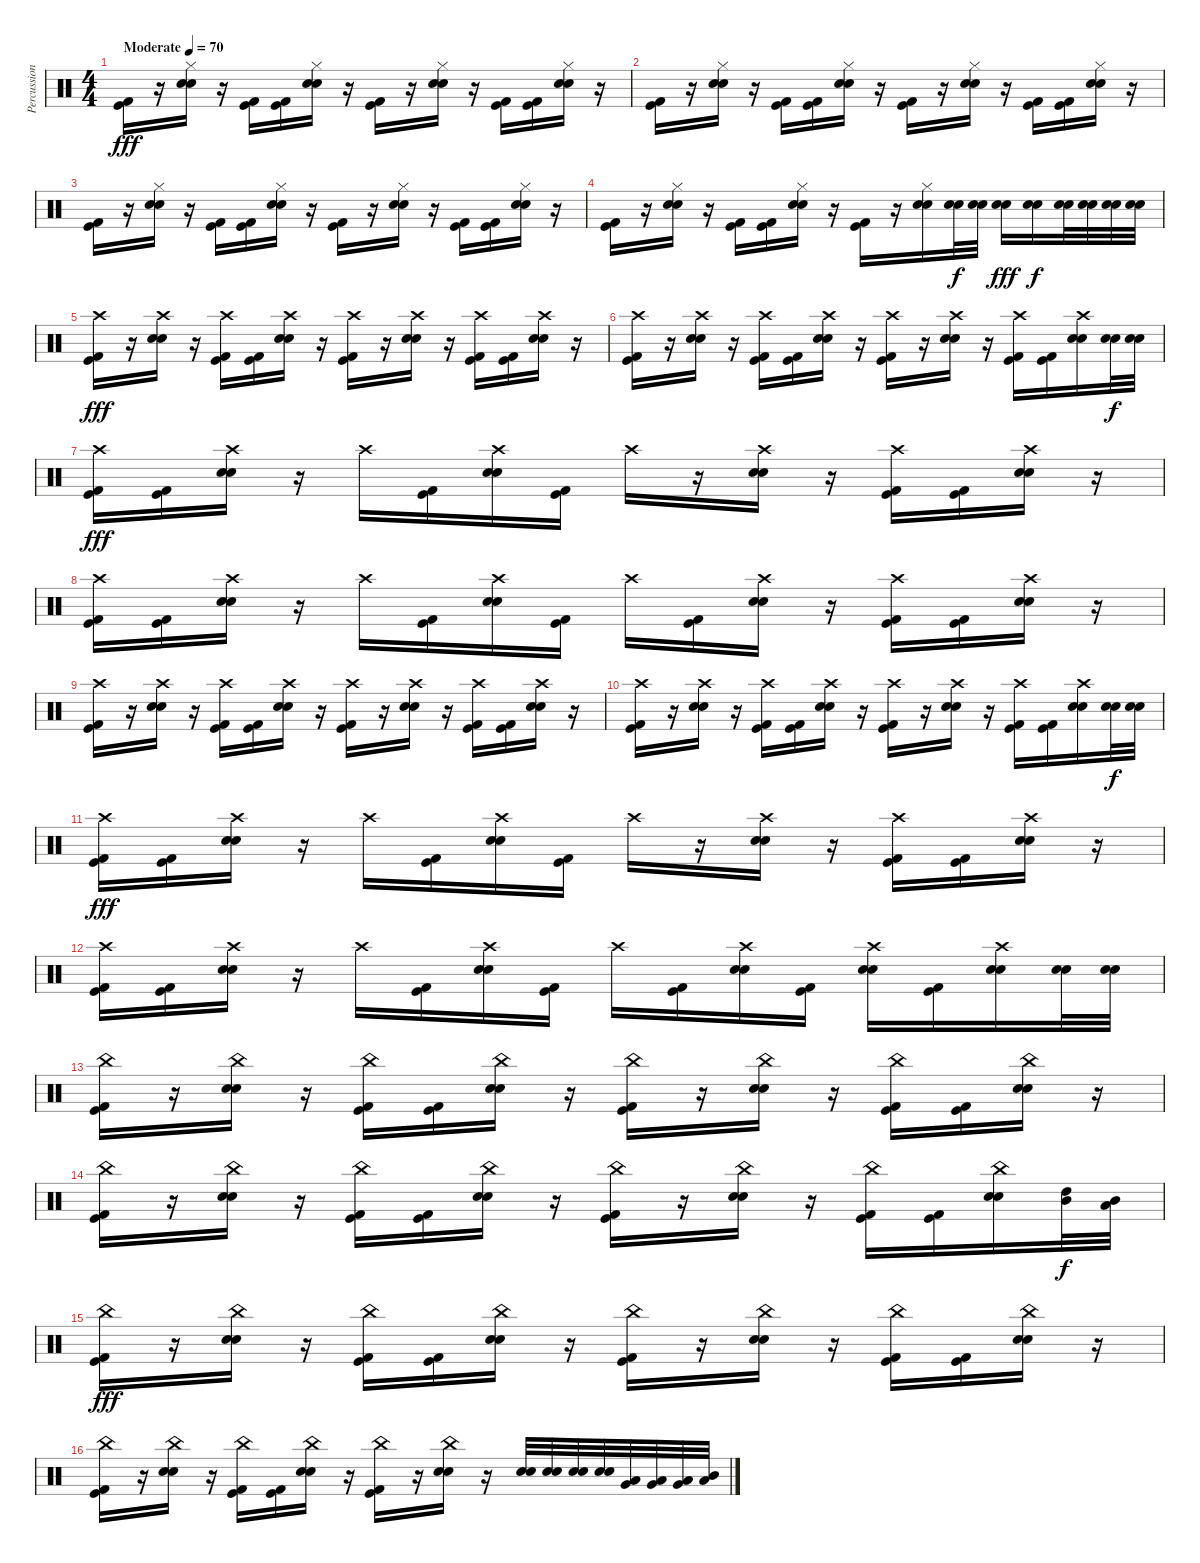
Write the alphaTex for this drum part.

\track ("Percussion" "Percussion") {instrument percussion}
\staff {score}
\articulation defaults
\ts (4 4)
\tempo (70 "Moderate")
\clef neutral
\ks c
("Kick (hit)" "Kick (hit) 2").16{dy fff} r.16 ("Hi-Hat (closed)" "Snare (hit) 2" "Electric Snare (hit)").16 r.16 ("Kick (hit)" "Kick (hit) 2").16 ("Kick (hit)" "Kick (hit) 2").16 ("Hi-Hat (closed)" "Snare (hit) 2" "Electric Snare (hit)").16 r.16 ("Kick (hit)" "Kick (hit) 2").16 r.16 ("Hi-Hat (closed)" "Snare (hit) 2" "Electric Snare (hit)").16 r.16 ("Kick (hit)" "Kick (hit) 2").16 ("Kick (hit)" "Kick (hit) 2").16 ("Hi-Hat (closed)" "Snare (hit) 2" "Electric Snare (hit)").16 r.16 |
("Kick (hit)" "Kick (hit) 2").16 r.16 ("Hi-Hat (closed)" "Snare (hit) 2" "Electric Snare (hit)").16 r.16 ("Kick (hit)" "Kick (hit) 2").16 ("Kick (hit)" "Kick (hit) 2").16 ("Hi-Hat (closed)" "Snare (hit) 2" "Electric Snare (hit)").16 r.16 ("Kick (hit)" "Kick (hit) 2").16 r.16 ("Hi-Hat (closed)" "Snare (hit) 2" "Electric Snare (hit)").16 r.16 ("Kick (hit)" "Kick (hit) 2").16 ("Kick (hit)" "Kick (hit) 2").16 ("Hi-Hat (closed)" "Snare (hit) 2" "Electric Snare (hit)").16 r.16 |
("Kick (hit)" "Kick (hit) 2").16 r.16 ("Hi-Hat (closed)" "Snare (hit) 2" "Electric Snare (hit)").16 r.16 ("Kick (hit)" "Kick (hit) 2").16 ("Kick (hit)" "Kick (hit) 2").16 ("Hi-Hat (closed)" "Snare (hit) 2" "Electric Snare (hit)").16 r.16 ("Kick (hit)" "Kick (hit) 2").16 r.16 ("Hi-Hat (closed)" "Snare (hit) 2" "Electric Snare (hit)").16 r.16 ("Kick (hit)" "Kick (hit) 2").16 ("Kick (hit)" "Kick (hit) 2").16 ("Hi-Hat (closed)" "Snare (hit) 2" "Electric Snare (hit)").16 r.16 |
("Kick (hit)" "Kick (hit) 2").16 r.16 ("Hi-Hat (closed)" "Snare (hit) 2" "Electric Snare (hit)").16 r.16 ("Kick (hit)" "Kick (hit) 2").16 ("Kick (hit)" "Kick (hit) 2").16 ("Hi-Hat (closed)" "Snare (hit) 2" "Electric Snare (hit)").16 r.16 ("Kick (hit)" "Kick (hit) 2").16 r.16 ("Hi-Hat (closed)" "Snare (hit) 2" "Electric Snare (hit)").16 ("Snare (hit) 2" "Electric Snare (hit)").32{dy f} ("Snare (hit) 2" "Electric Snare (hit)").32 ("Snare (hit) 2" "Electric Snare (hit)").16{dy fff} ("Snare (hit) 2" "Electric Snare (hit)").16{dy f} ("Snare (hit) 2" "Electric Snare (hit)").32 ("Snare (hit) 2" "Electric Snare (hit)").32 ("Snare (hit) 2" "Electric Snare (hit)").32 ("Snare (hit) 2" "Electric Snare (hit)").32 |
("Kick (hit)" "Crash high (hit)" "Kick (hit) 2").16{dy fff} r.16 ("Crash high (hit)" "Snare (hit) 2" "Electric Snare (hit)").16 r.16 ("Kick (hit)" "Crash high (hit)" "Kick (hit) 2").16 ("Kick (hit)" "Kick (hit) 2").16 ("Crash high (hit)" "Snare (hit) 2" "Electric Snare (hit)").16 r.16 ("Kick (hit)" "Crash high (hit)" "Kick (hit) 2").16 r.16 ("Crash high (hit)" "Snare (hit) 2" "Electric Snare (hit)").16 r.16 ("Kick (hit)" "Crash high (hit)" "Kick (hit) 2").16 ("Kick (hit)" "Kick (hit) 2").16 ("Crash high (hit)" "Snare (hit) 2" "Electric Snare (hit)").16 r.16 |
("Kick (hit)" "Crash high (hit)" "Kick (hit) 2").16 r.16 ("Crash high (hit)" "Snare (hit) 2" "Electric Snare (hit)").16 r.16 ("Kick (hit)" "Crash high (hit)" "Kick (hit) 2").16 ("Kick (hit)" "Kick (hit) 2").16 ("Crash high (hit)" "Snare (hit) 2" "Electric Snare (hit)").16 r.16 ("Kick (hit)" "Crash high (hit)" "Kick (hit) 2").16 r.16 ("Crash high (hit)" "Snare (hit) 2" "Electric Snare (hit)").16 r.16 ("Kick (hit)" "Crash high (hit)" "Kick (hit) 2").16 ("Kick (hit)" "Kick (hit) 2").16 ("Crash high (hit)" "Snare (hit) 2" "Electric Snare (hit)").16 ("Snare (hit) 2" "Electric Snare (hit)").32{dy f} ("Snare (hit) 2" "Electric Snare (hit)").32 |
("Kick (hit)" "Crash high (hit)" "Kick (hit) 2").16{dy fff} ("Kick (hit)" "Kick (hit) 2").16 ("Crash high (hit)" "Snare (hit) 2" "Electric Snare (hit)").16 r.16 "Crash high (hit)".16 ("Kick (hit)" "Kick (hit) 2").16 ("Crash high (hit)" "Snare (hit) 2" "Electric Snare (hit)").16 ("Kick (hit)" "Kick (hit) 2").16 "Crash high (hit)".16 r.16 ("Crash high (hit)" "Snare (hit) 2" "Electric Snare (hit)").16 r.16 ("Kick (hit)" "Crash high (hit)" "Kick (hit) 2").16 ("Kick (hit)" "Kick (hit) 2").16 ("Crash high (hit)" "Snare (hit) 2" "Electric Snare (hit)").16 r.16 |
("Kick (hit)" "Crash high (hit)" "Kick (hit) 2").16 ("Kick (hit)" "Kick (hit) 2").16 ("Crash high (hit)" "Snare (hit) 2" "Electric Snare (hit)").16 r.16 "Crash high (hit)".16 ("Kick (hit)" "Kick (hit) 2").16 ("Crash high (hit)" "Snare (hit) 2" "Electric Snare (hit)").16 ("Kick (hit)" "Kick (hit) 2").16 "Crash high (hit)".16 ("Kick (hit)" "Kick (hit) 2").16 ("Crash high (hit)" "Snare (hit) 2" "Electric Snare (hit)").16 r.16 ("Kick (hit)" "Crash high (hit)" "Kick (hit) 2").16 ("Kick (hit)" "Kick (hit) 2").16 ("Crash high (hit)" "Snare (hit) 2" "Electric Snare (hit)").16 r.16 |
("Kick (hit)" "Crash high (hit)" "Kick (hit) 2").16 r.16 ("Crash high (hit)" "Snare (hit) 2" "Electric Snare (hit)").16 r.16 ("Kick (hit)" "Crash high (hit)" "Kick (hit) 2").16 ("Kick (hit)" "Kick (hit) 2").16 ("Crash high (hit)" "Snare (hit) 2" "Electric Snare (hit)").16 r.16 ("Kick (hit)" "Crash high (hit)" "Kick (hit) 2").16 r.16 ("Crash high (hit)" "Snare (hit) 2" "Electric Snare (hit)").16 r.16 ("Kick (hit)" "Crash high (hit)" "Kick (hit) 2").16 ("Kick (hit)" "Kick (hit) 2").16 ("Crash high (hit)" "Snare (hit) 2" "Electric Snare (hit)").16 r.16 |
("Kick (hit)" "Crash high (hit)" "Kick (hit) 2").16 r.16 ("Crash high (hit)" "Snare (hit) 2" "Electric Snare (hit)").16 r.16 ("Kick (hit)" "Crash high (hit)" "Kick (hit) 2").16 ("Kick (hit)" "Kick (hit) 2").16 ("Crash high (hit)" "Snare (hit) 2" "Electric Snare (hit)").16 r.16 ("Kick (hit)" "Crash high (hit)" "Kick (hit) 2").16 r.16 ("Crash high (hit)" "Snare (hit) 2" "Electric Snare (hit)").16 r.16 ("Kick (hit)" "Crash high (hit)" "Kick (hit) 2").16 ("Kick (hit)" "Kick (hit) 2").16 ("Crash high (hit)" "Snare (hit) 2" "Electric Snare (hit)").16 ("Snare (hit) 2" "Electric Snare (hit)").32{dy f} ("Snare (hit) 2" "Electric Snare (hit)").32 |
("Kick (hit)" "Crash high (hit)" "Kick (hit) 2").16{dy fff} ("Kick (hit)" "Kick (hit) 2").16 ("Crash high (hit)" "Snare (hit) 2" "Electric Snare (hit)").16 r.16 "Crash high (hit)".16 ("Kick (hit)" "Kick (hit) 2").16 ("Crash high (hit)" "Snare (hit) 2" "Electric Snare (hit)").16 ("Kick (hit)" "Kick (hit) 2").16 "Crash high (hit)".16 r.16 ("Crash high (hit)" "Snare (hit) 2" "Electric Snare (hit)").16 r.16 ("Kick (hit)" "Crash high (hit)" "Kick (hit) 2").16 ("Kick (hit)" "Kick (hit) 2").16 ("Crash high (hit)" "Snare (hit) 2" "Electric Snare (hit)").16 r.16 |
("Kick (hit)" "Crash high (hit)" "Kick (hit) 2").16 ("Kick (hit)" "Kick (hit) 2").16 ("Crash high (hit)" "Snare (hit) 2" "Electric Snare (hit)").16 r.16 "Crash high (hit)".16 ("Kick (hit)" "Kick (hit) 2").16 ("Crash high (hit)" "Snare (hit) 2" "Electric Snare (hit)").16 ("Kick (hit)" "Kick (hit) 2").16 "Crash high (hit)".16 ("Kick (hit)" "Kick (hit) 2").16 ("Crash high (hit)" "Snare (hit) 2" "Electric Snare (hit)").16 ("Kick (hit)" "Kick (hit) 2").16 ("Crash high (hit)" "Snare (hit) 2" "Electric Snare (hit)").16 ("Kick (hit)" "Kick (hit) 2").16 ("Crash high (hit)" "Snare (hit) 2" "Electric Snare (hit)").16 ("Snare (hit) 2" "Electric Snare (hit)").32 ("Snare (hit) 2" "Electric Snare (hit)").32 |
("Kick (hit)" "China (hit)" "Kick (hit) 2").16 r.16 ("China (hit)" "Snare (hit) 2" "Electric Snare (hit)").16 r.16 ("Kick (hit)" "China (hit)" "Kick (hit) 2").16 ("Kick (hit)" "Kick (hit) 2").16 ("China (hit)" "Snare (hit) 2" "Electric Snare (hit)").16 r.16 ("Kick (hit)" "China (hit)" "Kick (hit) 2").16 r.16 ("China (hit)" "Snare (hit) 2" "Electric Snare (hit)").16 r.16 ("Kick (hit)" "China (hit)" "Kick (hit) 2").16 ("Kick (hit)" "Kick (hit) 2").16 ("China (hit)" "Snare (hit) 2" "Electric Snare (hit)").16 r.16 |
("Kick (hit)" "China (hit)" "Kick (hit) 2").16 r.16 ("China (hit)" "Snare (hit) 2" "Electric Snare (hit)").16 r.16 ("Kick (hit)" "China (hit)" "Kick (hit) 2").16 ("Kick (hit)" "Kick (hit) 2").16 ("China (hit)" "Snare (hit) 2" "Electric Snare (hit)").16 r.16 ("Kick (hit)" "China (hit)" "Kick (hit) 2").16 r.16 ("China (hit)" "Snare (hit) 2" "Electric Snare (hit)").16 r.16 ("Kick (hit)" "China (hit)" "Kick (hit) 2").16 ("Kick (hit)" "Kick (hit) 2").16 ("China (hit)" "Snare (hit) 2" "Electric Snare (hit)").16 ("High Tom (hit)" "Mid Tom (hit)").32{dy f} ("Mid Tom (hit)" "Low Tom (hit)").32 |
("Kick (hit)" "China (hit)" "Kick (hit) 2").16{dy fff} r.16 ("China (hit)" "Snare (hit) 2" "Electric Snare (hit)").16 r.16 ("Kick (hit)" "China (hit)" "Kick (hit) 2").16 ("Kick (hit)" "Kick (hit) 2").16 ("China (hit)" "Snare (hit) 2" "Electric Snare (hit)").16 r.16 ("Kick (hit)" "China (hit)" "Kick (hit) 2").16 r.16 ("China (hit)" "Snare (hit) 2" "Electric Snare (hit)").16 r.16 ("Kick (hit)" "China (hit)" "Kick (hit) 2").16 ("Kick (hit)" "Kick (hit) 2").16 ("China (hit)" "Snare (hit) 2" "Electric Snare (hit)").16 r.16 |
("Kick (hit)" "China (hit)" "Kick (hit) 2").16 r.16 ("China (hit)" "Snare (hit) 2" "Electric Snare (hit)").16 r.16 ("Kick (hit)" "China (hit)" "Kick (hit) 2").16 ("Kick (hit)" "Kick (hit) 2").16 ("China (hit)" "Snare (hit) 2" "Electric Snare (hit)").16 r.16 ("Kick (hit)" "China (hit)" "Kick (hit) 2").16 r.16 ("China (hit)" "Snare (hit) 2" "Electric Snare (hit)").16 r.16 ("Snare (hit) 2" "Electric Snare (hit)").32 ("Snare (hit) 2" "Electric Snare (hit)").32 ("Snare (hit) 2" "Electric Snare (hit)").32 ("Snare (hit) 2" "Electric Snare (hit)").32 ("Low Tom (hit)" "Very Low Tom (hit)").32 ("Very Low Tom (hit)" "Low Floor Tom (hit)").32 ("Low Tom (hit)" "Very Low Tom (hit)").32 ("Mid Tom (hit)" "Low Tom (hit)").32
